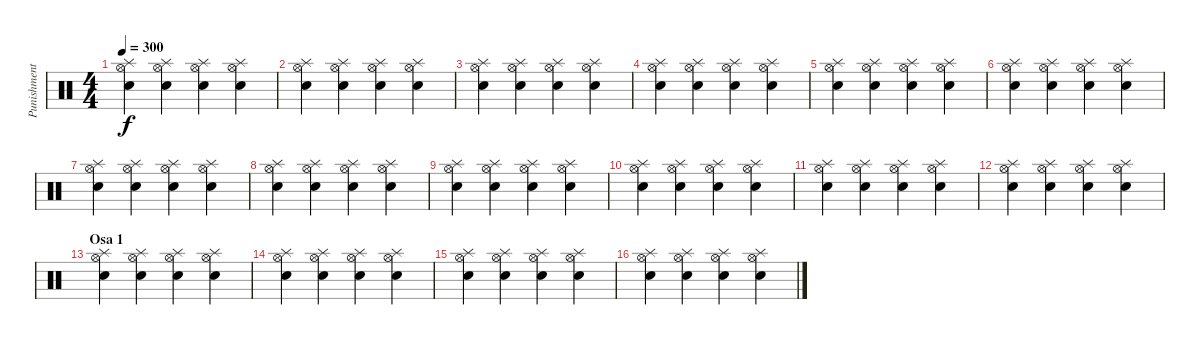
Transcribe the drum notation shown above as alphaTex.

\track ("Punishment" "Punishment") {instrument percussion}
\staff {score}
\articulation defaults
\ts (4 4)
\tempo 300
\clef neutral
\ks c
("Hi-Hat (open)" "Splash (hit)" "Electric Snare (hit)").4{dy f} ("Hi-Hat (open)" "Splash (hit)" "Electric Snare (hit)").4 ("Hi-Hat (open)" "Splash (hit)" "Electric Snare (hit)").4 ("Hi-Hat (open)" "Splash (hit)" "Electric Snare (hit)").4 |
("Hi-Hat (open)" "Splash (hit)" "Electric Snare (hit)").4 ("Hi-Hat (open)" "Splash (hit)" "Electric Snare (hit)").4 ("Hi-Hat (open)" "Splash (hit)" "Electric Snare (hit)").4 ("Hi-Hat (open)" "Splash (hit)" "Electric Snare (hit)").4 |
("Hi-Hat (open)" "Splash (hit)" "Electric Snare (hit)").4 ("Hi-Hat (open)" "Splash (hit)" "Electric Snare (hit)").4 ("Hi-Hat (open)" "Splash (hit)" "Electric Snare (hit)").4 ("Hi-Hat (open)" "Splash (hit)" "Electric Snare (hit)").4 |
("Hi-Hat (open)" "Splash (hit)" "Electric Snare (hit)").4 ("Hi-Hat (open)" "Splash (hit)" "Electric Snare (hit)").4 ("Hi-Hat (open)" "Splash (hit)" "Electric Snare (hit)").4 ("Hi-Hat (open)" "Splash (hit)" "Electric Snare (hit)").4 |
("Hi-Hat (open)" "Splash (hit)" "Electric Snare (hit)").4 ("Hi-Hat (open)" "Splash (hit)" "Electric Snare (hit)").4 ("Hi-Hat (open)" "Splash (hit)" "Electric Snare (hit)").4 ("Hi-Hat (open)" "Splash (hit)" "Electric Snare (hit)").4 |
("Hi-Hat (open)" "Splash (hit)" "Electric Snare (hit)").4 ("Hi-Hat (open)" "Splash (hit)" "Electric Snare (hit)").4 ("Hi-Hat (open)" "Splash (hit)" "Electric Snare (hit)").4 ("Hi-Hat (open)" "Splash (hit)" "Electric Snare (hit)").4 |
("Hi-Hat (open)" "Splash (hit)" "Electric Snare (hit)").4 ("Hi-Hat (open)" "Splash (hit)" "Electric Snare (hit)").4 ("Hi-Hat (open)" "Splash (hit)" "Electric Snare (hit)").4 ("Hi-Hat (open)" "Splash (hit)" "Electric Snare (hit)").4 |
("Hi-Hat (open)" "Splash (hit)" "Electric Snare (hit)").4 ("Hi-Hat (open)" "Splash (hit)" "Electric Snare (hit)").4 ("Hi-Hat (open)" "Splash (hit)" "Electric Snare (hit)").4 ("Hi-Hat (open)" "Splash (hit)" "Electric Snare (hit)").4 |
("Hi-Hat (open)" "Splash (hit)" "Electric Snare (hit)").4 ("Hi-Hat (open)" "Splash (hit)" "Electric Snare (hit)").4 ("Hi-Hat (open)" "Splash (hit)" "Electric Snare (hit)").4 ("Hi-Hat (open)" "Splash (hit)" "Electric Snare (hit)").4 |
("Hi-Hat (open)" "Splash (hit)" "Electric Snare (hit)").4 ("Hi-Hat (open)" "Splash (hit)" "Electric Snare (hit)").4 ("Hi-Hat (open)" "Splash (hit)" "Electric Snare (hit)").4 ("Hi-Hat (open)" "Splash (hit)" "Electric Snare (hit)").4 |
("Hi-Hat (open)" "Splash (hit)" "Electric Snare (hit)").4 ("Hi-Hat (open)" "Splash (hit)" "Electric Snare (hit)").4 ("Hi-Hat (open)" "Splash (hit)" "Electric Snare (hit)").4 ("Hi-Hat (open)" "Splash (hit)" "Electric Snare (hit)").4 |
("Hi-Hat (open)" "Splash (hit)" "Electric Snare (hit)").4 ("Hi-Hat (open)" "Splash (hit)" "Electric Snare (hit)").4 ("Hi-Hat (open)" "Splash (hit)" "Electric Snare (hit)").4 ("Hi-Hat (open)" "Splash (hit)" "Electric Snare (hit)").4 |
\section ("" "Osa 1")
("Hi-Hat (open)" "Splash (hit)" "Electric Snare (hit)").4 ("Hi-Hat (open)" "Splash (hit)" "Electric Snare (hit)").4 ("Hi-Hat (open)" "Splash (hit)" "Electric Snare (hit)").4 ("Hi-Hat (open)" "Splash (hit)" "Electric Snare (hit)").4 |
("Hi-Hat (open)" "Splash (hit)" "Electric Snare (hit)").4 ("Hi-Hat (open)" "Splash (hit)" "Electric Snare (hit)").4 ("Hi-Hat (open)" "Splash (hit)" "Electric Snare (hit)").4 ("Hi-Hat (open)" "Splash (hit)" "Electric Snare (hit)").4 |
("Hi-Hat (open)" "Splash (hit)" "Electric Snare (hit)").4 ("Hi-Hat (open)" "Splash (hit)" "Electric Snare (hit)").4 ("Hi-Hat (open)" "Splash (hit)" "Electric Snare (hit)").4 ("Hi-Hat (open)" "Splash (hit)" "Electric Snare (hit)").4 |
("Hi-Hat (open)" "Splash (hit)" "Electric Snare (hit)").4 ("Hi-Hat (open)" "Splash (hit)" "Electric Snare (hit)").4 ("Hi-Hat (open)" "Splash (hit)" "Electric Snare (hit)").4 ("Hi-Hat (open)" "Splash (hit)" "Electric Snare (hit)").4
